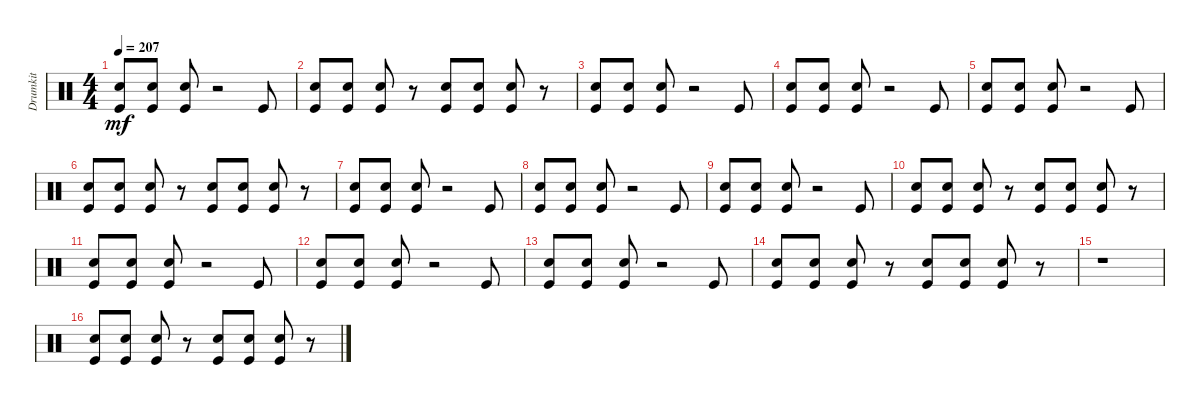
\track ("Drumkit" "Drumkit") {instrument percussion}
\staff {score}
\articulation defaults
\ts (4 4)
\tempo 207
\clef neutral
\ks c
("Kick (hit)" "Snare (hit) 2").8{dy mf} ("Kick (hit)" "Snare (hit) 2").8 ("Kick (hit)" "Snare (hit) 2").8 r.2 "Kick (hit)".8 |
("Kick (hit)" "Snare (hit) 2").8 ("Kick (hit)" "Snare (hit) 2").8 ("Kick (hit)" "Snare (hit) 2").8 r.8 ("Kick (hit)" "Snare (hit) 2").8 ("Kick (hit)" "Snare (hit) 2").8 ("Kick (hit)" "Snare (hit) 2").8 r.8 |
("Kick (hit)" "Snare (hit) 2").8 ("Kick (hit)" "Snare (hit) 2").8 ("Kick (hit)" "Snare (hit) 2").8 r.2 "Kick (hit)".8 |
("Kick (hit)" "Snare (hit) 2").8 ("Kick (hit)" "Snare (hit) 2").8 ("Kick (hit)" "Snare (hit) 2").8 r.2 "Kick (hit)".8 |
("Kick (hit)" "Snare (hit) 2").8 ("Kick (hit)" "Snare (hit) 2").8 ("Kick (hit)" "Snare (hit) 2").8 r.2 "Kick (hit)".8 |
("Kick (hit)" "Snare (hit) 2").8 ("Kick (hit)" "Snare (hit) 2").8 ("Kick (hit)" "Snare (hit) 2").8 r.8 ("Kick (hit)" "Snare (hit) 2").8 ("Kick (hit)" "Snare (hit) 2").8 ("Kick (hit)" "Snare (hit) 2").8 r.8 |
("Kick (hit)" "Snare (hit) 2").8 ("Kick (hit)" "Snare (hit) 2").8 ("Kick (hit)" "Snare (hit) 2").8 r.2 "Kick (hit)".8 |
("Kick (hit)" "Snare (hit) 2").8 ("Kick (hit)" "Snare (hit) 2").8 ("Kick (hit)" "Snare (hit) 2").8 r.2 "Kick (hit)".8 |
("Kick (hit)" "Snare (hit) 2").8 ("Kick (hit)" "Snare (hit) 2").8 ("Kick (hit)" "Snare (hit) 2").8 r.2 "Kick (hit)".8 |
("Kick (hit)" "Snare (hit) 2").8 ("Kick (hit)" "Snare (hit) 2").8 ("Kick (hit)" "Snare (hit) 2").8 r.8 ("Kick (hit)" "Snare (hit) 2").8 ("Kick (hit)" "Snare (hit) 2").8 ("Kick (hit)" "Snare (hit) 2").8 r.8 |
("Kick (hit)" "Snare (hit) 2").8 ("Kick (hit)" "Snare (hit) 2").8 ("Kick (hit)" "Snare (hit) 2").8 r.2 "Kick (hit)".8 |
("Kick (hit)" "Snare (hit) 2").8 ("Kick (hit)" "Snare (hit) 2").8 ("Kick (hit)" "Snare (hit) 2").8 r.2 "Kick (hit)".8 |
("Kick (hit)" "Snare (hit) 2").8 ("Kick (hit)" "Snare (hit) 2").8 ("Kick (hit)" "Snare (hit) 2").8 r.2 "Kick (hit)".8 |
("Kick (hit)" "Snare (hit) 2").8 ("Kick (hit)" "Snare (hit) 2").8 ("Kick (hit)" "Snare (hit) 2").8 r.8 ("Kick (hit)" "Snare (hit) 2").8 ("Kick (hit)" "Snare (hit) 2").8 ("Kick (hit)" "Snare (hit) 2").8 r.8 |
r.1 |
("Kick (hit)" "Snare (hit) 2").8 ("Kick (hit)" "Snare (hit) 2").8 ("Kick (hit)" "Snare (hit) 2").8 r.8 ("Kick (hit)" "Snare (hit) 2").8 ("Kick (hit)" "Snare (hit) 2").8 ("Kick (hit)" "Snare (hit) 2").8 r.8
